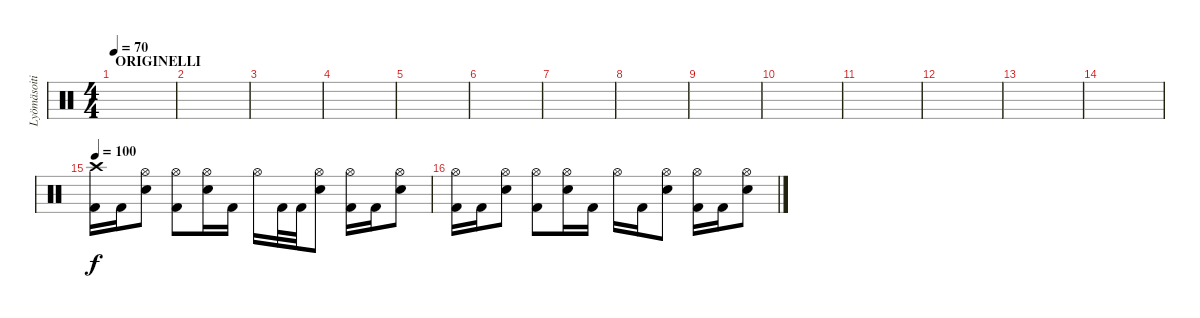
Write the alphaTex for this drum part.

\track ("Lyömäsoitin" "Lyömäsoiti") {instrument percussion}
\staff {score}
\articulation defaults
\ts (4 4)
\section ("" "ORIGINELLI")
\tempo 70
\clef neutral
\ks c
|
|
|
|
|
|
|
|
|
|
|
|
|
|
\tempo 100
("Crash high (hit)" "Kick (hit) 2").16 "Kick (hit) 2".16 ("Hi-Hat (open)" "Snare (hit) 2").8 ("Hi-Hat (open)" "Kick (hit) 2").8 ("Hi-Hat (open)" "Snare (hit) 2").16 "Kick (hit) 2".16 "Hi-Hat (open)".16 "Kick (hit) 2".32 "Kick (hit) 2".32 ("Hi-Hat (open)" "Snare (hit) 2").8 ("Hi-Hat (open)" "Kick (hit) 2").16 "Kick (hit) 2".16 ("Hi-Hat (open)" "Snare (hit) 2").8 |
("Hi-Hat (open)" "Kick (hit) 2").16 "Kick (hit) 2".16 ("Hi-Hat (open)" "Snare (hit) 2").8 ("Hi-Hat (open)" "Kick (hit) 2").8 ("Hi-Hat (open)" "Snare (hit) 2").16 "Kick (hit) 2".16 "Hi-Hat (open)".16 "Kick (hit) 2".16 ("Hi-Hat (open)" "Snare (hit) 2").8 ("Hi-Hat (open)" "Kick (hit) 2").16 "Kick (hit) 2".16 ("Hi-Hat (open)" "Snare (hit) 2").8
